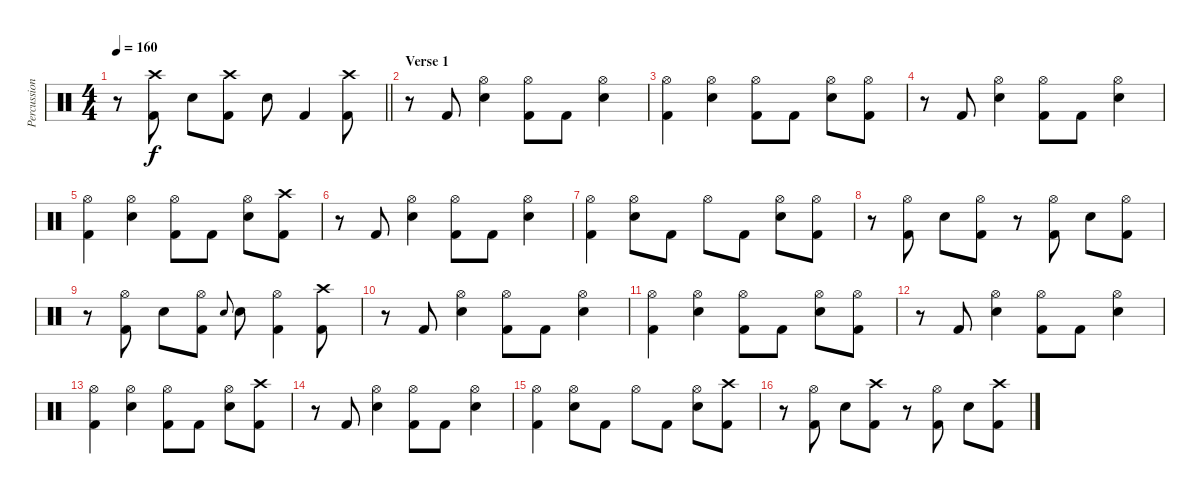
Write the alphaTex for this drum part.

\track ("Percussion" "Percussion") {instrument percussion}
\staff {score}
\articulation defaults
\ts (4 4)
\tempo 160
\clef neutral
\barLineRight lightlight
\ks c
r.8{dy f} ("Crash high (hit)" "Kick (hit) 2").8 "Electric Snare (hit)".8 ("Crash high (hit)" "Kick (hit) 2").8 "Electric Snare (hit)".8 "Kick (hit) 2".4 ("Crash high (hit)" "Kick (hit) 2").8 |
\section ("" "Verse 1")
r.8 "Kick (hit) 2".8 ("Hi-Hat (open)" "Electric Snare (hit)").4 ("Hi-Hat (open)" "Kick (hit) 2").8 "Kick (hit) 2".8 ("Hi-Hat (open)" "Electric Snare (hit)").4 |
("Hi-Hat (open)" "Kick (hit) 2").4 ("Hi-Hat (open)" "Electric Snare (hit)").4 ("Hi-Hat (open)" "Kick (hit) 2").8 "Kick (hit) 2".8 ("Hi-Hat (open)" "Electric Snare (hit)").8 ("Hi-Hat (open)" "Kick (hit) 2").8 |
r.8 "Kick (hit) 2".8 ("Hi-Hat (open)" "Electric Snare (hit)").4 ("Hi-Hat (open)" "Kick (hit) 2").8 "Kick (hit) 2".8 ("Hi-Hat (open)" "Electric Snare (hit)").4 |
("Hi-Hat (open)" "Kick (hit) 2").4 ("Hi-Hat (open)" "Electric Snare (hit)").4 ("Hi-Hat (open)" "Kick (hit) 2").8 "Kick (hit) 2".8 ("Hi-Hat (open)" "Electric Snare (hit)").8 ("Crash high (hit)" "Kick (hit) 2").8 |
r.8 "Kick (hit) 2".8 ("Hi-Hat (open)" "Electric Snare (hit)").4 ("Hi-Hat (open)" "Kick (hit) 2").8 "Kick (hit) 2".8 ("Hi-Hat (open)" "Electric Snare (hit)").4 |
("Hi-Hat (open)" "Kick (hit) 2").4 ("Hi-Hat (open)" "Electric Snare (hit)").8 "Kick (hit) 2".8 "Hi-Hat (open)".8 "Kick (hit) 2".8 ("Hi-Hat (open)" "Electric Snare (hit)").8 ("Hi-Hat (open)" "Kick (hit) 2").8 |
r.8 ("Hi-Hat (open)" "Kick (hit) 2").8 "Electric Snare (hit)".8 ("Hi-Hat (open)" "Kick (hit) 2").8 r.8 ("Hi-Hat (open)" "Kick (hit) 2").8 "Electric Snare (hit)".8 ("Hi-Hat (open)" "Kick (hit) 2").8 |
r.8 ("Hi-Hat (open)" "Kick (hit) 2").8 "Electric Snare (hit)".8 ("Hi-Hat (open)" "Kick (hit) 2").8 "Electric Snare (hit)".8{gr onbeat} "Electric Snare (hit)".8 ("Hi-Hat (open)" "Kick (hit) 2").4 ("Crash high (hit)" "Kick (hit) 2").8 |
r.8 "Kick (hit) 2".8 ("Hi-Hat (open)" "Electric Snare (hit)").4 ("Hi-Hat (open)" "Kick (hit) 2").8 "Kick (hit) 2".8 ("Hi-Hat (open)" "Electric Snare (hit)").4 |
("Hi-Hat (open)" "Kick (hit) 2").4 ("Hi-Hat (open)" "Electric Snare (hit)").4 ("Hi-Hat (open)" "Kick (hit) 2").8 "Kick (hit) 2".8 ("Hi-Hat (open)" "Electric Snare (hit)").8 ("Hi-Hat (open)" "Kick (hit) 2").8 |
r.8 "Kick (hit) 2".8 ("Hi-Hat (open)" "Electric Snare (hit)").4 ("Hi-Hat (open)" "Kick (hit) 2").8 "Kick (hit) 2".8 ("Hi-Hat (open)" "Electric Snare (hit)").4 |
("Hi-Hat (open)" "Kick (hit) 2").4 ("Hi-Hat (open)" "Electric Snare (hit)").4 ("Hi-Hat (open)" "Kick (hit) 2").8 "Kick (hit) 2".8 ("Hi-Hat (open)" "Electric Snare (hit)").8 ("Crash high (hit)" "Kick (hit) 2").8 |
r.8 "Kick (hit) 2".8 ("Hi-Hat (open)" "Electric Snare (hit)").4 ("Hi-Hat (open)" "Kick (hit) 2").8 "Kick (hit) 2".8 ("Hi-Hat (open)" "Electric Snare (hit)").4 |
("Hi-Hat (open)" "Kick (hit) 2").4 ("Hi-Hat (open)" "Electric Snare (hit)").8 "Kick (hit) 2".8 "Hi-Hat (open)".8 "Kick (hit) 2".8 ("Hi-Hat (open)" "Electric Snare (hit)").8 ("Crash high (hit)" "Kick (hit) 2").8 |
r.8 ("Hi-Hat (open)" "Kick (hit) 2").8 "Electric Snare (hit)".8 ("Crash high (hit)" "Kick (hit) 2").8 r.8 ("Hi-Hat (open)" "Kick (hit) 2").8 "Electric Snare (hit)".8 ("Crash high (hit)" "Kick (hit) 2").8
